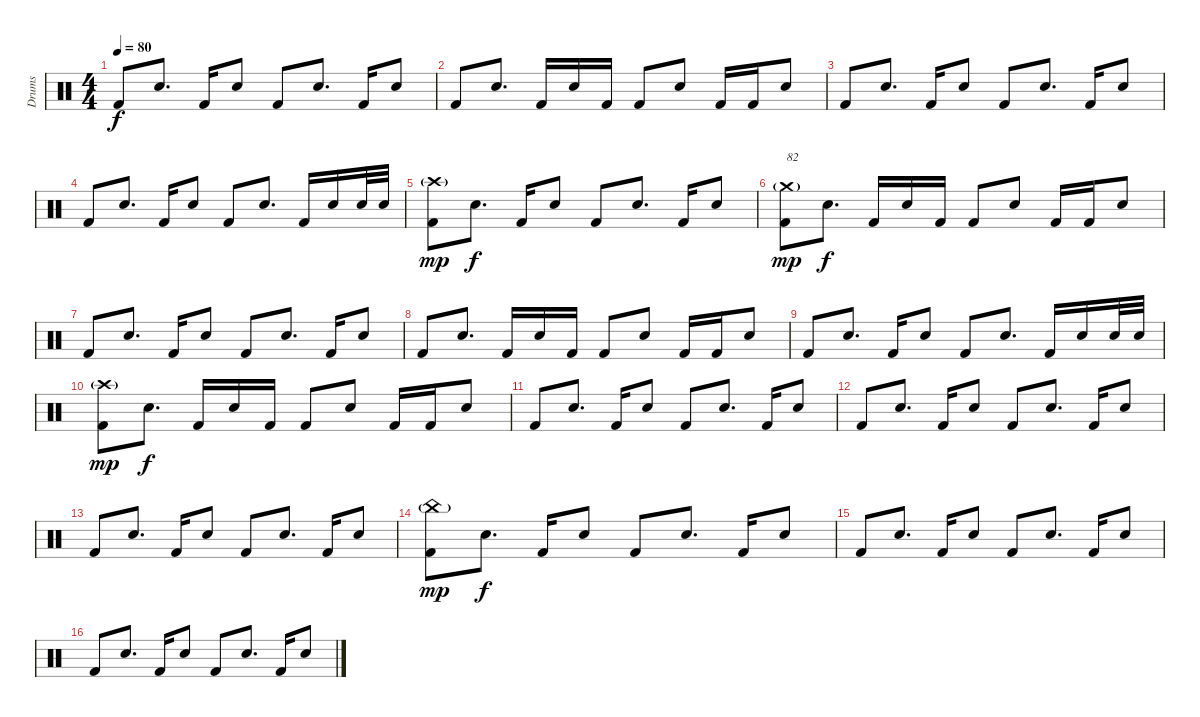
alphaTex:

\track ("Drums" "Drums") {instrument percussion}
\staff {score}
\articulation defaults
\ts (4 4)
\tempo 80
\clef neutral
\ks c "Kick (hit) 2".8{dy f} "Snare (hit) 2".8{d} "Kick (hit) 2".16 "Snare (hit) 2".8 "Kick (hit) 2".8 "Snare (hit) 2".8{d} "Kick (hit) 2".16 "Snare (hit) 2".8
|
"Kick (hit) 2".8 "Snare (hit) 2".8{d} "Kick (hit) 2".16 "Snare (hit) 2".16 "Kick (hit) 2".16 "Kick (hit) 2".8 "Snare (hit) 2".8 "Kick (hit) 2".16 "Kick (hit) 2".16 "Snare (hit) 2".8 |
"Kick (hit) 2".8 "Snare (hit) 2".8{d} "Kick (hit) 2".16 "Snare (hit) 2".8 "Kick (hit) 2".8 "Snare (hit) 2".8{d} "Kick (hit) 2".16 "Snare (hit) 2".8 |
"Kick (hit) 2".8 "Snare (hit) 2".8{d} "Kick (hit) 2".16 "Snare (hit) 2".8 "Kick (hit) 2".8 "Snare (hit) 2".8{d} "Kick (hit) 2".16 "Snare (hit) 2".16 "Snare (hit) 2".32 "Snare (hit) 2".32 |
("Kick (hit) 2" "Crash high (hit)"{g}).8{dy mp} "Snare (hit) 2".8{d dy f} "Kick (hit) 2".16 "Snare (hit) 2".8 "Kick (hit) 2".8 "Snare (hit) 2".8{d} "Kick (hit) 2".16 "Snare (hit) 2".8 |
("Kick (hit) 2" "Crash medium (hit)"{g}).8{txt "82" dy mp} "Snare (hit) 2".8{d dy f} "Kick (hit) 2".16 "Snare (hit) 2".16 "Kick (hit) 2".16 "Kick (hit) 2".8 "Snare (hit) 2".8 "Kick (hit) 2".16 "Kick (hit) 2".16 "Snare (hit) 2".8 |
"Kick (hit) 2".8 "Snare (hit) 2".8{d} "Kick (hit) 2".16 "Snare (hit) 2".8 "Kick (hit) 2".8 "Snare (hit) 2".8{d} "Kick (hit) 2".16 "Snare (hit) 2".8 |
"Kick (hit) 2".8 "Snare (hit) 2".8{d} "Kick (hit) 2".16 "Snare (hit) 2".16 "Kick (hit) 2".16 "Kick (hit) 2".8 "Snare (hit) 2".8 "Kick (hit) 2".16 "Kick (hit) 2".16 "Snare (hit) 2".8 |
"Kick (hit) 2".8 "Snare (hit) 2".8{d} "Kick (hit) 2".16 "Snare (hit) 2".8 "Kick (hit) 2".8 "Snare (hit) 2".8{d} "Kick (hit) 2".16 "Snare (hit) 2".16 "Snare (hit) 2".32 "Snare (hit) 2".32 |
("Kick (hit) 2" "Crash high (hit)"{g}).8{dy mp} "Snare (hit) 2".8{d dy f} "Kick (hit) 2".16 "Snare (hit) 2".16 "Kick (hit) 2".16 "Kick (hit) 2".8 "Snare (hit) 2".8 "Kick (hit) 2".16 "Kick (hit) 2".16 "Snare (hit) 2".8 |
"Kick (hit) 2".8 "Snare (hit) 2".8{d} "Kick (hit) 2".16 "Snare (hit) 2".8 "Kick (hit) 2".8 "Snare (hit) 2".8{d} "Kick (hit) 2".16 "Snare (hit) 2".8 |
"Kick (hit) 2".8 "Snare (hit) 2".8{d} "Kick (hit) 2".16 "Snare (hit) 2".8 "Kick (hit) 2".8 "Snare (hit) 2".8{d} "Kick (hit) 2".16 "Snare (hit) 2".8 |
"Kick (hit) 2".8 "Snare (hit) 2".8{d} "Kick (hit) 2".16 "Snare (hit) 2".8 "Kick (hit) 2".8 "Snare (hit) 2".8{d} "Kick (hit) 2".16 "Snare (hit) 2".8 |
("Kick (hit) 2" "China (hit)"{g}).8{dy mp} "Snare (hit) 2".8{d dy f} "Kick (hit) 2".16 "Snare (hit) 2".8 "Kick (hit) 2".8 "Snare (hit) 2".8{d} "Kick (hit) 2".16 "Snare (hit) 2".8 |
"Kick (hit) 2".8 "Snare (hit) 2".8{d} "Kick (hit) 2".16 "Snare (hit) 2".8 "Kick (hit) 2".8 "Snare (hit) 2".8{d} "Kick (hit) 2".16 "Snare (hit) 2".8 |
"Kick (hit) 2".8 "Snare (hit) 2".8{d} "Kick (hit) 2".16 "Snare (hit) 2".8 "Kick (hit) 2".8 "Snare (hit) 2".8{d} "Kick (hit) 2".16 "Snare (hit) 2".8
